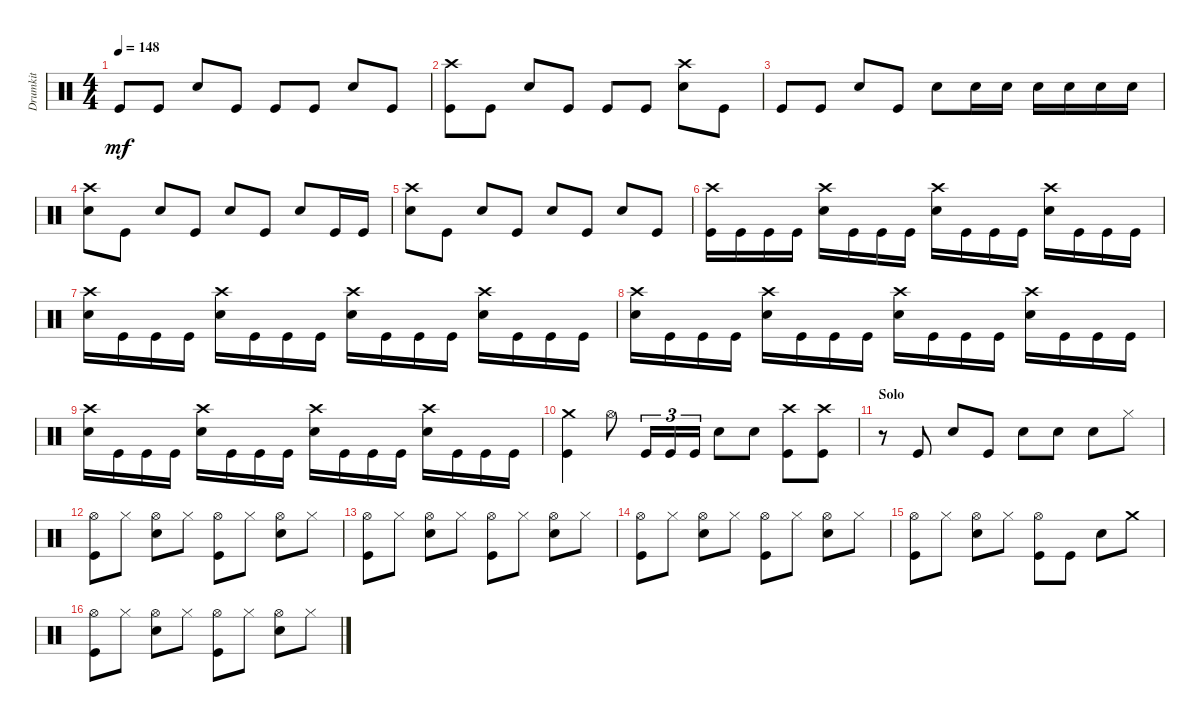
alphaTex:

\track ("Drumkit" "Drumkit") {instrument percussion}
\staff {score}
\articulation defaults
\ts (4 4)
\tempo 148
\clef neutral
\ks c "Kick (hit)".8{dy mf} "Kick (hit)".8 "Snare (hit) 2".8 "Kick (hit)".8 "Kick (hit)".8 "Kick (hit)".8 "Snare (hit) 2".8 "Kick (hit)".8
|
("Kick (hit)" "Crash high (hit)").8 "Kick (hit)".8 "Snare (hit) 2".8 "Kick (hit)".8 "Kick (hit)".8 "Kick (hit)".8 ("Snare (hit) 2" "Crash high (hit)").8 "Kick (hit)".8 |
"Kick (hit)".8 "Kick (hit)".8 "Snare (hit) 2".8 "Kick (hit)".8 "Snare (hit) 2".8 "Snare (hit) 2".16 "Snare (hit) 2".16 "Snare (hit) 2".16 "Snare (hit) 2".16 "Snare (hit) 2".16 "Snare (hit) 2".16 |
("Crash high (hit)" "Snare (hit) 2").8 "Kick (hit)".8 "Snare (hit) 2".8 "Kick (hit)".8 "Snare (hit) 2".8 "Kick (hit)".8 "Snare (hit) 2".8 "Kick (hit)".16 "Kick (hit)".16 |
("Crash high (hit)" "Snare (hit) 2").8 "Kick (hit)".8 "Snare (hit) 2".8 "Kick (hit)".8 "Snare (hit) 2".8 "Kick (hit)".8 "Snare (hit) 2".8 "Kick (hit)".8 |
("Kick (hit)" "Crash high (hit)").16 "Kick (hit)".16 "Kick (hit)".16 "Kick (hit)".16 ("Snare (hit) 2" "Crash high (hit)").16 "Kick (hit)".16 "Kick (hit)".16 "Kick (hit)".16 ("Snare (hit) 2" "Crash high (hit)").16 "Kick (hit)".16 "Kick (hit)".16 "Kick (hit)".16 ("Snare (hit) 2" "Crash high (hit)").16 "Kick (hit)".16 "Kick (hit)".16 "Kick (hit)".16 |
("Snare (hit) 2" "Crash high (hit)").16 "Kick (hit)".16 "Kick (hit)".16 "Kick (hit)".16 ("Snare (hit) 2" "Crash high (hit)").16 "Kick (hit)".16 "Kick (hit)".16 "Kick (hit)".16 ("Snare (hit) 2" "Crash high (hit)").16 "Kick (hit)".16 "Kick (hit)".16 "Kick (hit)".16 ("Snare (hit) 2" "Crash high (hit)").16 "Kick (hit)".16 "Kick (hit)".16 "Kick (hit)".16 |
("Snare (hit) 2" "Crash high (hit)").16 "Kick (hit)".16 "Kick (hit)".16 "Kick (hit)".16 ("Snare (hit) 2" "Crash high (hit)").16 "Kick (hit)".16 "Kick (hit)".16 "Kick (hit)".16 ("Snare (hit) 2" "Crash high (hit)").16 "Kick (hit)".16 "Kick (hit)".16 "Kick (hit)".16 ("Snare (hit) 2" "Crash high (hit)").16 "Kick (hit)".16 "Kick (hit)".16 "Kick (hit)".16 |
("Snare (hit) 2" "Crash high (hit)").16 "Kick (hit)".16 "Kick (hit)".16 "Kick (hit)".16 ("Snare (hit) 2" "Crash high (hit)").16 "Kick (hit)".16 "Kick (hit)".16 "Kick (hit)".16 ("Snare (hit) 2" "Crash high (hit)").16 "Kick (hit)".16 "Kick (hit)".16 "Kick (hit)".16 ("Snare (hit) 2" "Crash high (hit)").16 "Kick (hit)".16 "Kick (hit)".16 "Kick (hit)".16 |
("Kick (hit)" "Crash medium (hit)").4 "Hi-Hat (open)".8 "Kick (hit)".16{tu (3 2)} "Kick (hit)".16{tu (3 2)} "Kick (hit)".16{tu (3 2)} "Snare (hit) 2".8 "Snare (hit) 2".8 ("Kick (hit)" "Crash high (hit)").8 ("Kick (hit)" "Crash high (hit)").8 |
\section ("" "Solo")
r.8 "Kick (hit)".8 "Snare (hit) 2".8 "Kick (hit)".8 "Snare (hit) 2".8 "Snare (hit) 2".8 "Snare (hit) 2".8 "Hi-Hat (closed)".8 |
("Kick (hit)" "Hi-Hat (open)").8 "Hi-Hat (closed)".8 ("Snare (hit) 2" "Hi-Hat (open)").8 "Hi-Hat (closed)".8 ("Kick (hit)" "Hi-Hat (open)").8 "Hi-Hat (closed)".8 ("Snare (hit) 2" "Hi-Hat (open)").8 "Hi-Hat (closed)".8 |
("Kick (hit)" "Hi-Hat (open)").8 "Hi-Hat (closed)".8 ("Snare (hit) 2" "Hi-Hat (open)").8 "Hi-Hat (closed)".8 ("Kick (hit)" "Hi-Hat (open)").8 "Hi-Hat (closed)".8 ("Snare (hit) 2" "Hi-Hat (open)").8 "Hi-Hat (closed)".8 |
("Kick (hit)" "Hi-Hat (open)").8 "Hi-Hat (closed)".8 ("Snare (hit) 2" "Hi-Hat (open)").8 "Hi-Hat (closed)".8 ("Kick (hit)" "Hi-Hat (open)").8 "Hi-Hat (closed)".8 ("Snare (hit) 2" "Hi-Hat (open)").8 "Hi-Hat (closed)".8 |
("Kick (hit)" "Hi-Hat (open)").8 "Hi-Hat (closed)".8 ("Snare (hit) 2" "Hi-Hat (open)").8 "Hi-Hat (closed)".8 ("Kick (hit)" "Hi-Hat (open)").8 "Kick (hit)".8 "Snare (hit) 2".8 "Crash medium (hit)".8 |
("Kick (hit)" "Hi-Hat (open)").8 "Hi-Hat (closed)".8 ("Snare (hit) 2" "Hi-Hat (open)").8 "Hi-Hat (closed)".8 ("Kick (hit)" "Hi-Hat (open)").8 "Hi-Hat (closed)".8 ("Snare (hit) 2" "Hi-Hat (open)").8 "Hi-Hat (closed)".8
